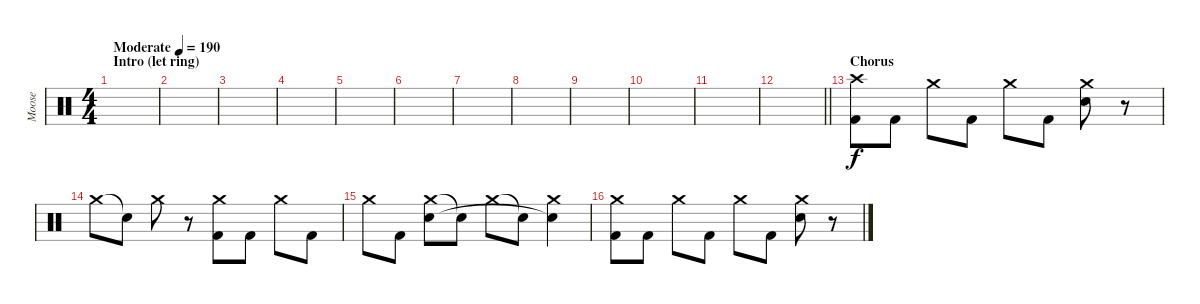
\track ("Moose" "Moose") {instrument percussion}
\staff {score}
\articulation defaults
\ts (4 4)
\section ("" "Intro (let ring)")
\tempo (190 "Moderate")
\clef neutral
\ks c
|
|
|
|
|
|
|
|
|
|
|
\barLineRight lightlight
|
\section ("" "Chorus")
("Crash high (hit)" "Kick (hit) 2").8 "Kick (hit) 2".8 "Crash medium (hit)".8 "Kick (hit) 2".8 "Crash medium (hit)".8 "Kick (hit) 2".8 ("Crash medium (hit)" "Snare (hit) 2").8 r.8 |
"Crash medium (hit)".8 "Snare (hit)"{t}.8 "Crash medium (hit)".8 r.8 ("Crash medium (hit)" "Kick (hit) 2").8 "Kick (hit) 2".8 "Crash medium (hit)".8 "Kick (hit) 2".8 |
"Crash medium (hit)".8 "Kick (hit) 2".8 ("Crash medium (hit)" "Snare (hit) 2").8 "Snare (hit)"{t}.8 "Crash medium (hit)".8 "Snare (hit)"{t}.8 ("Crash medium (hit)" "Snare (hit)"{t}).4 |
("Crash medium (hit)" "Kick (hit) 2").8 "Kick (hit) 2".8 "Crash medium (hit)".8 "Kick (hit) 2".8 "Crash medium (hit)".8 "Kick (hit) 2".8 ("Crash medium (hit)" "Snare (hit) 2").8 r.8
